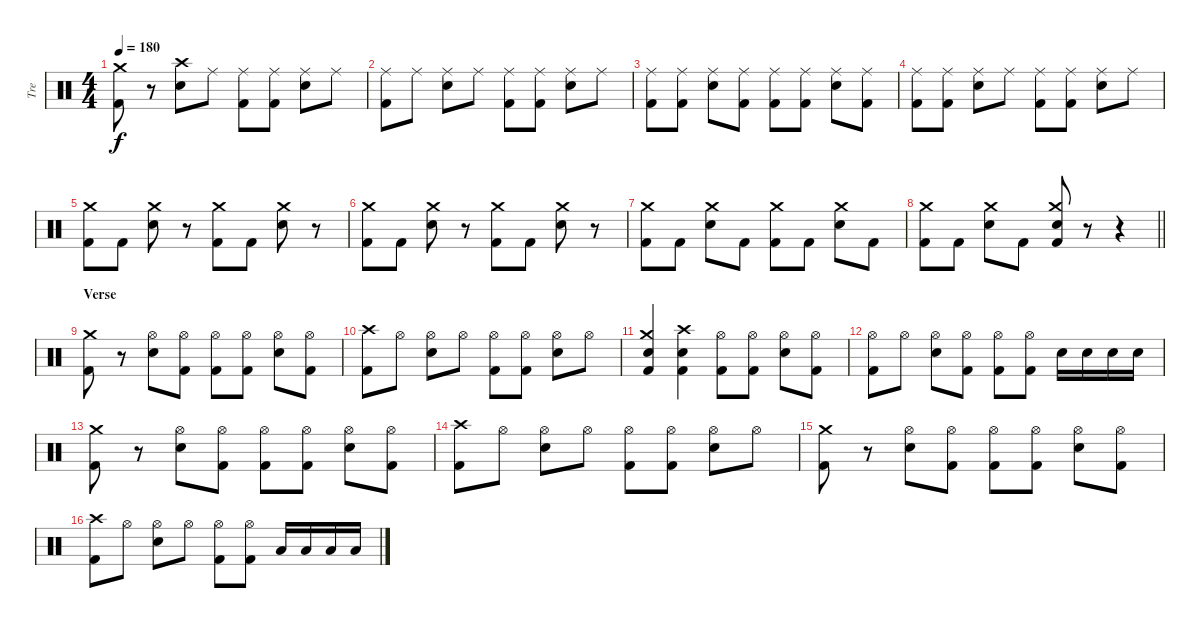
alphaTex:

\track ("Tre" "Tre") {instrument percussion}
\staff {score}
\articulation defaults
\ts (4 4)
\tempo 180
\clef neutral
\ks c
("Kick (hit) 2" "Crash medium (hit)").8{dy f} r.8 ("Snare (hit) 2" "Crash high (hit)").8 "Ride (middle)".8 ("Kick (hit) 2" "Ride (middle)").8 ("Kick (hit) 2" "Ride (middle)").8 ("Snare (hit) 2" "Ride (middle)").8 "Ride (middle)".8 |
("Kick (hit) 2" "Ride (middle)").8 "Ride (middle)".8 ("Snare (hit) 2" "Ride (middle)").8 "Ride (middle)".8 ("Kick (hit) 2" "Ride (middle)").8 ("Kick (hit) 2" "Ride (middle)").8 ("Snare (hit) 2" "Ride (middle)").8 "Ride (middle)".8 |
("Kick (hit) 2" "Ride (middle)").8 ("Kick (hit) 2" "Ride (middle)").8 ("Snare (hit) 2" "Ride (middle)").8 ("Kick (hit) 2" "Ride (middle)").8 ("Kick (hit) 2" "Ride (middle)").8 ("Kick (hit) 2" "Ride (middle)").8 ("Snare (hit) 2" "Ride (middle)").8 ("Kick (hit) 2" "Ride (middle)").8 |
("Kick (hit) 2" "Ride (middle)").8 ("Kick (hit) 2" "Ride (middle)").8 ("Snare (hit) 2" "Ride (middle)").8 "Ride (middle)".8 ("Kick (hit) 2" "Ride (middle)").8 ("Kick (hit) 2" "Ride (middle)").8 ("Snare (hit) 2" "Ride (middle)").8 "Ride (middle)".8 |
("Kick (hit) 2" "Crash medium (hit)").8 "Kick (hit) 2".8 ("Snare (hit) 2" "Crash medium (hit)").8 r.8 ("Kick (hit) 2" "Crash medium (hit)").8 "Kick (hit) 2".8 ("Snare (hit) 2" "Crash medium (hit)").8 r.8 |
("Kick (hit) 2" "Crash medium (hit)").8 "Kick (hit) 2".8 ("Snare (hit) 2" "Crash medium (hit)").8 r.8 ("Kick (hit) 2" "Crash medium (hit)").8 "Kick (hit) 2".8 ("Snare (hit) 2" "Crash medium (hit)").8 r.8 |
("Kick (hit) 2" "Crash medium (hit)").8 "Kick (hit) 2".8 ("Snare (hit) 2" "Crash medium (hit)").8 "Kick (hit) 2".8 ("Kick (hit) 2" "Crash medium (hit)").8 "Kick (hit) 2".8 ("Snare (hit) 2" "Crash medium (hit)").8 "Kick (hit) 2".8 |
\barLineRight lightlight
("Kick (hit) 2" "Crash medium (hit)").8 "Kick (hit) 2".8 ("Snare (hit) 2" "Crash medium (hit)").8 "Kick (hit) 2".8 ("Kick (hit) 2" "Snare (hit) 2" "Crash medium (hit)").8 r.8 r.4 |
\section ("" "Verse")
("Kick (hit) 2" "Crash medium (hit)").8 r.8 ("Snare (hit) 2" "Hi-Hat (open)").8 ("Kick (hit) 2" "Hi-Hat (open)").8 ("Kick (hit) 2" "Hi-Hat (open)").8 ("Kick (hit) 2" "Hi-Hat (open)").8 ("Snare (hit) 2" "Hi-Hat (open)").8 ("Kick (hit) 2" "Hi-Hat (open)").8 |
("Kick (hit) 2" "Crash high (hit)").8 "Hi-Hat (open)".8 ("Snare (hit) 2" "Hi-Hat (open)").8 "Hi-Hat (open)".8 ("Kick (hit) 2" "Hi-Hat (open)").8 ("Kick (hit) 2" "Hi-Hat (open)").8 ("Snare (hit) 2" "Hi-Hat (open)").8 "Hi-Hat (open)".8 |
("Kick (hit) 2" "Snare (hit) 2" "Crash medium (hit)").4 ("Kick (hit) 2" "Snare (hit) 2" "Crash high (hit)").4 ("Kick (hit) 2" "Hi-Hat (open)").8 ("Kick (hit) 2" "Hi-Hat (open)").8 ("Snare (hit) 2" "Hi-Hat (open)").8 ("Kick (hit) 2" "Hi-Hat (open)").8 |
("Kick (hit) 2" "Hi-Hat (open)").8 "Hi-Hat (open)".8 ("Snare (hit) 2" "Hi-Hat (open)").8 ("Kick (hit) 2" "Hi-Hat (open)").8 ("Kick (hit) 2" "Hi-Hat (open)").8 ("Kick (hit) 2" "Hi-Hat (open)").8 "Snare (hit) 2".16 "Snare (hit) 2".16 "Snare (hit) 2".16 "Snare (hit) 2".16 |
("Kick (hit) 2" "Crash medium (hit)").8 r.8 ("Snare (hit) 2" "Hi-Hat (open)").8 ("Kick (hit) 2" "Hi-Hat (open)").8 ("Kick (hit) 2" "Hi-Hat (open)").8 ("Kick (hit) 2" "Hi-Hat (open)").8 ("Snare (hit) 2" "Hi-Hat (open)").8 ("Kick (hit) 2" "Hi-Hat (open)").8 |
("Kick (hit) 2" "Crash high (hit)").8 "Hi-Hat (open)".8 ("Snare (hit) 2" "Hi-Hat (open)").8 "Hi-Hat (open)".8 ("Kick (hit) 2" "Hi-Hat (open)").8 ("Kick (hit) 2" "Hi-Hat (open)").8 ("Snare (hit) 2" "Hi-Hat (open)").8 "Hi-Hat (open)".8 |
("Kick (hit) 2" "Crash medium (hit)").8 r.8 ("Snare (hit) 2" "Hi-Hat (open)").8 ("Kick (hit) 2" "Hi-Hat (open)").8 ("Kick (hit) 2" "Hi-Hat (open)").8 ("Kick (hit) 2" "Hi-Hat (open)").8 ("Snare (hit) 2" "Hi-Hat (open)").8 ("Kick (hit) 2" "Hi-Hat (open)").8 |
("Kick (hit) 2" "Crash high (hit)").8 "Hi-Hat (open)".8 ("Snare (hit) 2" "Hi-Hat (open)").8 "Hi-Hat (open)".8 ("Kick (hit) 2" "Hi-Hat (open)").8 ("Kick (hit) 2" "Hi-Hat (open)").8 "Low Floor Tom (hit)".16 "Low Floor Tom (hit)".16 "Low Floor Tom (hit)".16 "Low Floor Tom (hit)".16
